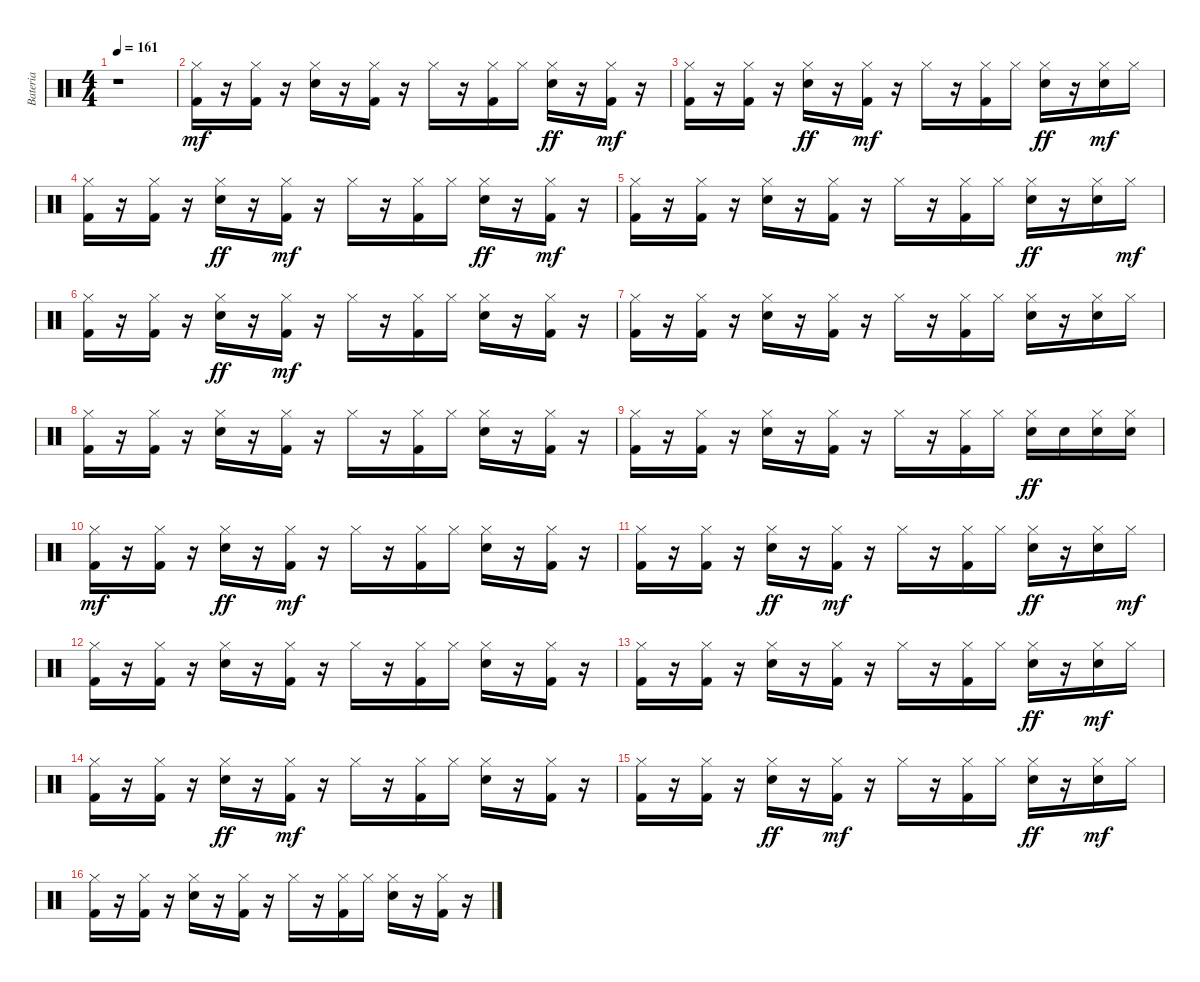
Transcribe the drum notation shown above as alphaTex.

\track ("Bateria" "Bateria") {instrument percussion}
\staff {score}
\articulation defaults
\ts (4 4)
\tempo 161
\clef neutral
\ks c
r.1{dy ff} |
("Hi-Hat (closed)" "Kick (hit) 2").16{dy mf volume 12 balance 8} r.16 ("Kick (hit) 2" "Hi-Hat (closed)").16 r.16 ("Electric Snare (hit)" "Hi-Hat (closed)").16 r.16 ("Kick (hit) 2" "Hi-Hat (closed)").16 r.16 "Hi-Hat (closed)".16 r.16 ("Hi-Hat (closed)" "Kick (hit) 2").16 "Hi-Hat (closed)".16 ("Hi-Hat (closed)" "Electric Snare (hit)").16{dy ff} r.16 ("Hi-Hat (closed)" "Kick (hit) 2").16{dy mf} r.16 |
("Hi-Hat (closed)" "Kick (hit) 2").16 r.16 ("Hi-Hat (closed)" "Kick (hit) 2").16 r.16 ("Hi-Hat (closed)" "Electric Snare (hit)").16{dy ff} r.16 ("Kick (hit) 2" "Hi-Hat (closed)").16{dy mf} r.16 "Hi-Hat (closed)".16 r.16 ("Kick (hit) 2" "Hi-Hat (closed)").16 "Hi-Hat (closed)".16 ("Hi-Hat (closed)" "Electric Snare (hit)").16{dy ff} r.16 ("Electric Snare (hit)" "Hi-Hat (closed)").16{dy mf} "Hi-Hat (closed)".16 |
("Hi-Hat (closed)" "Kick (hit) 2").16 r.16 ("Hi-Hat (closed)" "Kick (hit) 2").16 r.16 ("Hi-Hat (closed)" "Electric Snare (hit)").16{dy ff} r.16 ("Hi-Hat (closed)" "Kick (hit) 2").16{dy mf} r.16 "Hi-Hat (closed)".16 r.16 ("Kick (hit) 2" "Hi-Hat (closed)").16 "Hi-Hat (closed)".16 ("Hi-Hat (closed)" "Electric Snare (hit)").16{dy ff} r.16 ("Hi-Hat (closed)" "Kick (hit) 2").16{dy mf} r.16 |
("Hi-Hat (closed)" "Kick (hit) 2").16 r.16 ("Kick (hit) 2" "Hi-Hat (closed)").16 r.16 ("Electric Snare (hit)" "Hi-Hat (closed)").16 r.16 ("Hi-Hat (closed)" "Kick (hit) 2").16 r.16 "Hi-Hat (closed)".16 r.16 ("Hi-Hat (closed)" "Kick (hit) 2").16 "Hi-Hat (closed)".16 ("Hi-Hat (closed)" "Electric Snare (hit)").16{dy ff} r.16 ("Hi-Hat (closed)" "Electric Snare (hit)").16 "Hi-Hat (closed)".16{dy mf} |
("Hi-Hat (closed)" "Kick (hit) 2").16 r.16 ("Kick (hit) 2" "Hi-Hat (closed)").16 r.16 ("Hi-Hat (closed)" "Electric Snare (hit)").16{dy ff} r.16 ("Hi-Hat (closed)" "Kick (hit) 2").16{dy mf} r.16 "Hi-Hat (closed)".16 r.16 ("Kick (hit) 2" "Hi-Hat (closed)").16 "Hi-Hat (closed)".16 ("Electric Snare (hit)" "Hi-Hat (closed)").16 r.16 ("Kick (hit) 2" "Hi-Hat (closed)").16 r.16 |
("Hi-Hat (closed)" "Kick (hit) 2").16 r.16 ("Kick (hit) 2" "Hi-Hat (closed)").16 r.16 ("Electric Snare (hit)" "Hi-Hat (closed)").16 r.16 ("Hi-Hat (closed)" "Kick (hit) 2").16 r.16 "Hi-Hat (closed)".16 r.16 ("Kick (hit) 2" "Hi-Hat (closed)").16 "Hi-Hat (closed)".16 ("Electric Snare (hit)" "Hi-Hat (closed)").16 r.16 ("Electric Snare (hit)" "Hi-Hat (closed)").16 "Hi-Hat (closed)".16 |
("Hi-Hat (closed)" "Kick (hit) 2").16 r.16 ("Hi-Hat (closed)" "Kick (hit) 2").16 r.16 ("Electric Snare (hit)" "Hi-Hat (closed)").16 r.16 ("Hi-Hat (closed)" "Kick (hit) 2").16 r.16 "Hi-Hat (closed)".16 r.16 ("Kick (hit) 2" "Hi-Hat (closed)").16 "Hi-Hat (closed)".16 ("Electric Snare (hit)" "Hi-Hat (closed)").16 r.16 ("Kick (hit) 2" "Hi-Hat (closed)").16 r.16 |
("Hi-Hat (closed)" "Kick (hit) 2").16 r.16 ("Kick (hit) 2" "Hi-Hat (closed)").16 r.16 ("Electric Snare (hit)" "Hi-Hat (closed)").16 r.16 ("Kick (hit) 2" "Hi-Hat (closed)").16 r.16 "Hi-Hat (closed)".16 r.16 ("Hi-Hat (closed)" "Kick (hit) 2").16 "Hi-Hat (closed)".16 ("Hi-Hat (closed)" "Electric Snare (hit)").16{dy ff} "Electric Snare (hit)".16 ("Hi-Hat (closed)" "Electric Snare (hit)").16 ("Hi-Hat (closed)" "Electric Snare (hit)").16 |
("Kick (hit) 2" "Hi-Hat (closed)").16{dy mf} r.16 ("Hi-Hat (closed)" "Kick (hit) 2").16 r.16 ("Hi-Hat (closed)" "Electric Snare (hit)").16{dy ff} r.16 ("Hi-Hat (closed)" "Kick (hit) 2").16{dy mf} r.16 "Hi-Hat (closed)".16 r.16 ("Kick (hit) 2" "Hi-Hat (closed)").16 "Hi-Hat (closed)".16 ("Electric Snare (hit)" "Hi-Hat (closed)").16 r.16 ("Hi-Hat (closed)" "Kick (hit) 2").16 r.16 |
("Hi-Hat (closed)" "Kick (hit) 2").16 r.16 ("Kick (hit) 2" "Hi-Hat (closed)").16 r.16 ("Hi-Hat (closed)" "Electric Snare (hit)").16{dy ff} r.16 ("Hi-Hat (closed)" "Kick (hit) 2").16{dy mf} r.16 "Hi-Hat (closed)".16 r.16 ("Hi-Hat (closed)" "Kick (hit) 2").16 "Hi-Hat (closed)".16 ("Hi-Hat (closed)" "Electric Snare (hit)").16{dy ff} r.16 ("Hi-Hat (closed)" "Electric Snare (hit)").16 "Hi-Hat (closed)".16{dy mf} |
("Hi-Hat (closed)" "Kick (hit) 2").16 r.16 ("Hi-Hat (closed)" "Kick (hit) 2").16 r.16 ("Electric Snare (hit)" "Hi-Hat (closed)").16 r.16 ("Kick (hit) 2" "Hi-Hat (closed)").16 r.16 "Hi-Hat (closed)".16 r.16 ("Hi-Hat (closed)" "Kick (hit) 2").16 "Hi-Hat (closed)".16 ("Electric Snare (hit)" "Hi-Hat (closed)").16 r.16 ("Kick (hit) 2" "Hi-Hat (closed)").16 r.16 |
("Hi-Hat (closed)" "Kick (hit) 2").16 r.16 ("Kick (hit) 2" "Hi-Hat (closed)").16 r.16 ("Electric Snare (hit)" "Hi-Hat (closed)").16 r.16 ("Kick (hit) 2" "Hi-Hat (closed)").16 r.16 "Hi-Hat (closed)".16 r.16 ("Hi-Hat (closed)" "Kick (hit) 2").16 "Hi-Hat (closed)".16 ("Hi-Hat (closed)" "Electric Snare (hit)").16{dy ff} r.16 ("Electric Snare (hit)" "Hi-Hat (closed)").16{dy mf} "Hi-Hat (closed)".16 |
("Hi-Hat (closed)" "Kick (hit) 2").16 r.16 ("Hi-Hat (closed)" "Kick (hit) 2").16 r.16 ("Hi-Hat (closed)" "Electric Snare (hit)").16{dy ff} r.16 ("Kick (hit) 2" "Hi-Hat (closed)").16{dy mf} r.16 "Hi-Hat (closed)".16 r.16 ("Kick (hit) 2" "Hi-Hat (closed)").16 "Hi-Hat (closed)".16 ("Electric Snare (hit)" "Hi-Hat (closed)").16 r.16 ("Kick (hit) 2" "Hi-Hat (closed)").16 r.16 |
("Kick (hit) 2" "Hi-Hat (closed)").16 r.16 ("Kick (hit) 2" "Hi-Hat (closed)").16 r.16 ("Hi-Hat (closed)" "Electric Snare (hit)").16{dy ff} r.16 ("Hi-Hat (closed)" "Kick (hit) 2").16{dy mf} r.16 "Hi-Hat (closed)".16 r.16 ("Kick (hit) 2" "Hi-Hat (closed)").16 "Hi-Hat (closed)".16 ("Hi-Hat (closed)" "Electric Snare (hit)").16{dy ff} r.16 ("Electric Snare (hit)" "Hi-Hat (closed)").16{dy mf} "Hi-Hat (closed)".16 |
("Kick (hit) 2" "Hi-Hat (closed)").16 r.16 ("Kick (hit) 2" "Hi-Hat (closed)").16 r.16 ("Electric Snare (hit)" "Hi-Hat (closed)").16 r.16 ("Hi-Hat (closed)" "Kick (hit) 2").16 r.16 "Hi-Hat (closed)".16 r.16 ("Hi-Hat (closed)" "Kick (hit) 2").16 "Hi-Hat (closed)".16 ("Electric Snare (hit)" "Hi-Hat (closed)").16 r.16 ("Hi-Hat (closed)" "Kick (hit) 2").16 r.16
